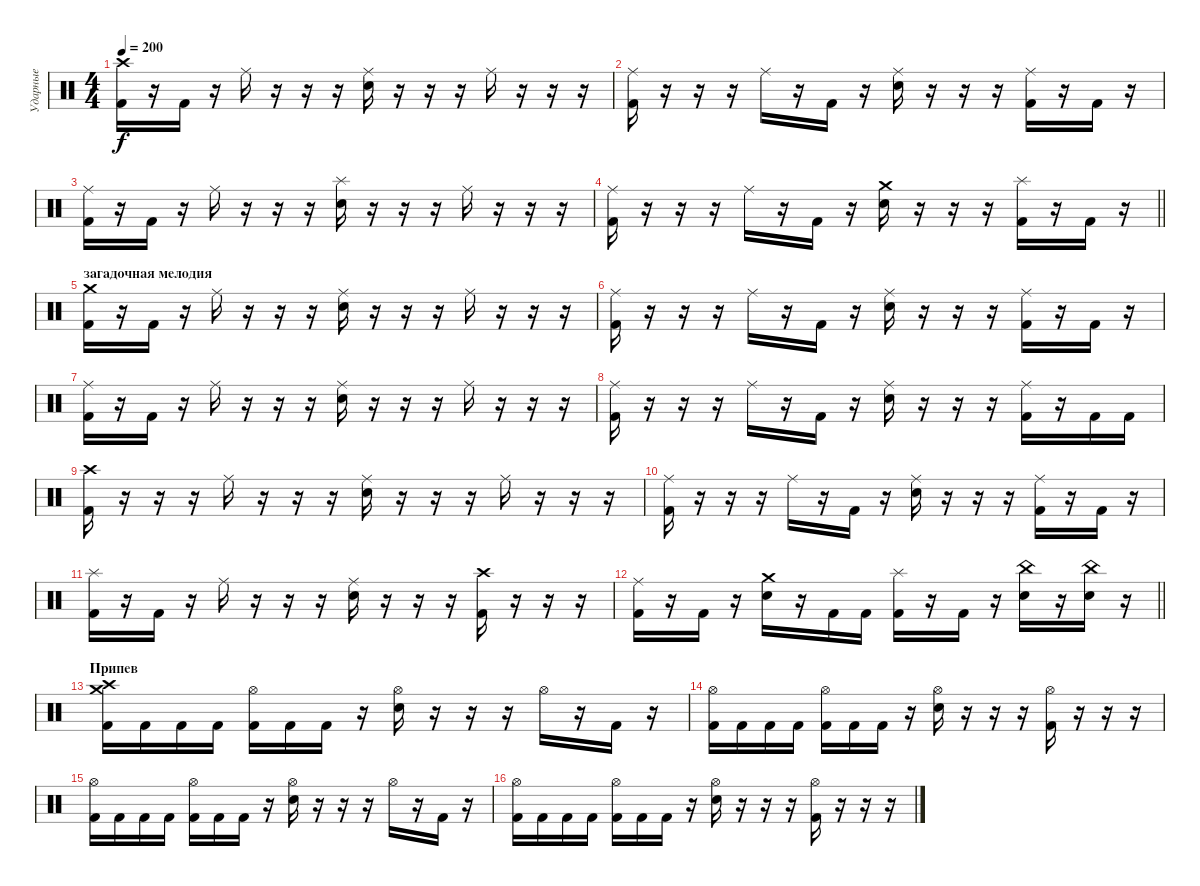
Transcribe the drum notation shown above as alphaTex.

\track ("Ударные" "Ударные") {instrument percussion}
\staff {score}
\articulation defaults
\ts (4 4)
\tempo 200
\clef neutral
\ks c
("Kick (hit) 2" "Crash high (hit)").16{dy f} r.16 "Kick (hit) 2".16 r.16 "Ride (middle)".16 r.16 r.16 r.16 ("Electric Snare (hit)" "Ride (middle)").16 r.16 r.16 r.16 "Ride (middle)".16 r.16 r.16 r.16 |
("Kick (hit) 2" "Ride (middle)").16 r.16 r.16 r.16 "Ride (middle)".16 r.16 "Kick (hit) 2".16 r.16 ("Electric Snare (hit)" "Ride (middle)").16 r.16 r.16 r.16 ("Kick (hit) 2" "Ride (middle)").16 r.16 "Kick (hit) 2".16 r.16 |
("Kick (hit) 2" "Ride (middle)").16 r.16 "Kick (hit) 2".16 r.16 "Ride (middle)".16 r.16 r.16 r.16 ("Electric Snare (hit)" "Splash (hit)").16 r.16 r.16 r.16 "Ride (middle)".16 r.16 r.16 r.16 |
\barLineRight lightlight
("Kick (hit) 2" "Ride (middle)").16 r.16 r.16 r.16 "Ride (middle)".16 r.16 "Kick (hit) 2".16 r.16 ("Electric Snare (hit)" "Crash medium (hit)").16 r.16 r.16 r.16 ("Kick (hit) 2" "Splash (hit)").16 r.16 "Kick (hit) 2".16 r.16 |
\section ("" "загадочная мелодия")
("Kick (hit) 2" "Crash medium (hit)").16 r.16 "Kick (hit) 2".16 r.16 "Ride (middle)".16 r.16 r.16 r.16 ("Electric Snare (hit)" "Ride (middle)").16 r.16 r.16 r.16 "Ride (middle)".16 r.16 r.16 r.16 |
("Kick (hit) 2" "Ride (middle)").16 r.16 r.16 r.16 "Ride (middle)".16 r.16 "Kick (hit) 2".16 r.16 ("Electric Snare (hit)" "Ride (middle)").16 r.16 r.16 r.16 ("Kick (hit) 2" "Ride (middle)").16 r.16 "Kick (hit) 2".16 r.16 |
("Kick (hit) 2" "Ride (middle)").16 r.16 "Kick (hit) 2".16 r.16 "Ride (middle)".16 r.16 r.16 r.16 ("Electric Snare (hit)" "Ride (middle)").16 r.16 r.16 r.16 "Ride (middle)".16 r.16 r.16 r.16 |
("Kick (hit) 2" "Ride (middle)").16 r.16 r.16 r.16 "Ride (middle)".16 r.16 "Kick (hit) 2".16 r.16 ("Electric Snare (hit)" "Ride (middle)").16 r.16 r.16 r.16 ("Kick (hit) 2" "Ride (middle)").16 r.16 "Kick (hit) 2".16 "Kick (hit) 2".16 |
("Kick (hit) 2" "Crash high (hit)").16 r.16 r.16 r.16 "Ride (middle)".16 r.16 r.16 r.16 ("Electric Snare (hit)" "Ride (middle)").16 r.16 r.16 r.16 "Ride (middle)".16 r.16 r.16 r.16 |
("Kick (hit) 2" "Ride (middle)").16 r.16 r.16 r.16 "Ride (middle)".16 r.16 "Kick (hit) 2".16 r.16 ("Electric Snare (hit)" "Ride (middle)").16 r.16 r.16 r.16 ("Kick (hit) 2" "Ride (middle)").16 r.16 "Kick (hit) 2".16 r.16 |
("Kick (hit) 2" "Splash (hit)").16 r.16 "Kick (hit) 2".16 r.16 "Ride (middle)".16 r.16 r.16 r.16 ("Electric Snare (hit)" "Ride (middle)").16 r.16 r.16 r.16 ("Kick (hit) 2" "Crash high (hit)").16 r.16 r.16 r.16 |
\barLineRight lightlight
("Kick (hit) 2" "Ride (middle)").16 r.16 "Kick (hit) 2".16 r.16 ("Electric Snare (hit)" "Crash medium (hit)").16 r.16 "Kick (hit) 2".16 "Kick (hit) 2".16 ("Kick (hit) 2" "Splash (hit)").16 r.16 "Kick (hit) 2".16 r.16 ("Electric Snare (hit)" "China (hit)").16 r.16 ("Electric Snare (hit)" "China (hit)").16 r.16 |
\section ("" "Припев")
("Kick (hit) 2" "Crash high (hit)" "Crash medium (hit)").16 "Kick (hit) 2".16 "Kick (hit) 2".16 "Kick (hit) 2".16 ("Kick (hit) 2" "Hi-Hat (open)").16 "Kick (hit) 2".16 "Kick (hit) 2".16 r.16 ("Electric Snare (hit)" "Hi-Hat (open)").16 r.16 r.16 r.16 "Hi-Hat (open)".16 r.16 "Kick (hit) 2".16 r.16 |
("Kick (hit) 2" "Hi-Hat (open)").16 "Kick (hit) 2".16 "Kick (hit) 2".16 "Kick (hit) 2".16 ("Kick (hit) 2" "Hi-Hat (open)").16 "Kick (hit) 2".16 "Kick (hit) 2".16 r.16 ("Electric Snare (hit)" "Hi-Hat (open)").16 r.16 r.16 r.16 ("Kick (hit) 2" "Hi-Hat (open)").16 r.16 r.16 r.16 |
("Kick (hit) 2" "Hi-Hat (open)").16 "Kick (hit) 2".16 "Kick (hit) 2".16 "Kick (hit) 2".16 ("Kick (hit) 2" "Hi-Hat (open)").16 "Kick (hit) 2".16 "Kick (hit) 2".16 r.16 ("Electric Snare (hit)" "Hi-Hat (open)").16 r.16 r.16 r.16 "Hi-Hat (open)".16 r.16 "Kick (hit) 2".16 r.16 |
("Kick (hit) 2" "Hi-Hat (open)").16 "Kick (hit) 2".16 "Kick (hit) 2".16 "Kick (hit) 2".16 ("Kick (hit) 2" "Hi-Hat (open)").16 "Kick (hit) 2".16 "Kick (hit) 2".16 r.16 ("Electric Snare (hit)" "Hi-Hat (open)").16 r.16 r.16 r.16 ("Kick (hit) 2" "Hi-Hat (open)").16 r.16 r.16 r.16
